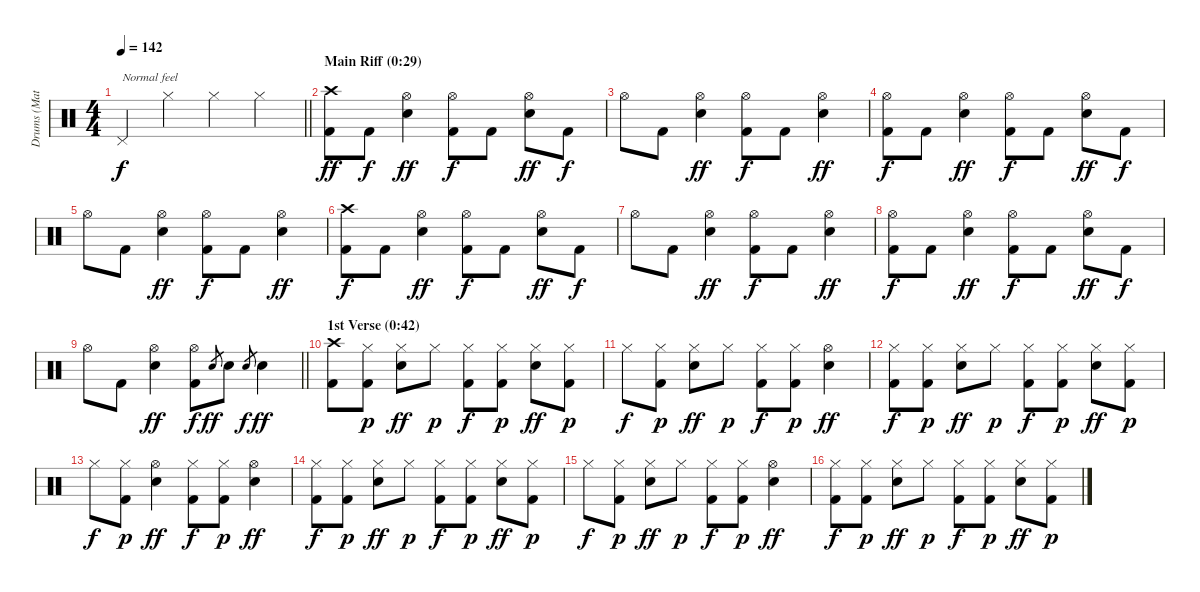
\track ("Drums (Matt Sorum)" "Drums (Mat") {instrument percussion}
\staff {score}
\articulation defaults
\ts (4 4)
\tempo 142
\clef neutral
\barLineRight lightlight
\ks c "Pedal Hi-Hat (hit)".4{txt "Normal feel" dy f} "Hi-Hat (closed)".4 "Hi-Hat (closed)".4 "Hi-Hat (closed)".4
|
\section ("" "Main Riff (0:29)")
("Crash high (hit)" "Kick (hit) 2").8{dy ff} "Kick (hit) 2".8{dy f} ("Hi-Hat (open)" "Snare (hit) 2").4{dy ff} ("Hi-Hat (open)" "Kick (hit) 2").8{dy f} "Kick (hit) 2".8 ("Hi-Hat (open)" "Snare (hit) 2").8{dy ff} "Kick (hit) 2".8{dy f} |
"Hi-Hat (open)".8 "Kick (hit) 2".8 ("Hi-Hat (open)" "Snare (hit) 2").4{dy ff} ("Hi-Hat (open)" "Kick (hit) 2").8{dy f} "Kick (hit) 2".8 ("Hi-Hat (open)" "Snare (hit) 2").4{dy ff} |
("Hi-Hat (open)" "Kick (hit) 2").8{dy f} "Kick (hit) 2".8 ("Hi-Hat (open)" "Snare (hit) 2").4{dy ff} ("Hi-Hat (open)" "Kick (hit) 2").8{dy f} "Kick (hit) 2".8 ("Hi-Hat (open)" "Snare (hit) 2").8{dy ff} "Kick (hit) 2".8{dy f} |
"Hi-Hat (open)".8 "Kick (hit) 2".8 ("Hi-Hat (open)" "Snare (hit) 2").4{dy ff} ("Hi-Hat (open)" "Kick (hit) 2").8{dy f} "Kick (hit) 2".8 ("Hi-Hat (open)" "Snare (hit) 2").4{dy ff} |
("Crash high (hit)" "Kick (hit) 2").8{dy f} "Kick (hit) 2".8 ("Hi-Hat (open)" "Snare (hit) 2").4{dy ff} ("Hi-Hat (open)" "Kick (hit) 2").8{dy f} "Kick (hit) 2".8 ("Hi-Hat (open)" "Snare (hit) 2").8{dy ff} "Kick (hit) 2".8{dy f} |
"Hi-Hat (open)".8 "Kick (hit) 2".8 ("Hi-Hat (open)" "Snare (hit) 2").4{dy ff} ("Hi-Hat (open)" "Kick (hit) 2").8{dy f} "Kick (hit) 2".8 ("Hi-Hat (open)" "Snare (hit) 2").4{dy ff} |
("Hi-Hat (open)" "Kick (hit) 2").8{dy f} "Kick (hit) 2".8 ("Hi-Hat (open)" "Snare (hit) 2").4{dy ff} ("Hi-Hat (open)" "Kick (hit) 2").8{dy f} "Kick (hit) 2".8 ("Hi-Hat (open)" "Snare (hit) 2").8{dy ff} "Kick (hit) 2".8{dy f} |
\barLineRight lightlight "Hi-Hat (open)".8 "Kick (hit) 2".8
("Hi-Hat (open)" "Snare (hit) 2").4{dy ff} ("Hi-Hat (open)" "Kick (hit) 2").8{dy f} "Snare (hit) 2".8{gr dy ff} "Snare (hit) 2".8 "Snare (hit) 2".8{gr dy f} "Snare (hit) 2".4{dy ff} |
\section ("" "1st Verse (0:42)")
("Crash high (hit)" "Kick (hit) 2").8 ("Hi-Hat (closed)" "Kick (hit) 2").8{dy p} ("Hi-Hat (closed)" "Snare (hit) 2").8{dy ff} "Hi-Hat (closed)".8{dy p} ("Hi-Hat (closed)" "Kick (hit) 2").8{dy f} ("Hi-Hat (closed)" "Kick (hit) 2").8{dy p} ("Hi-Hat (closed)" "Snare (hit) 2").8{dy ff} ("Hi-Hat (closed)" "Kick (hit) 2").8{dy p} |
"Hi-Hat (closed)".8{dy f} ("Hi-Hat (closed)" "Kick (hit) 2").8{dy p} ("Hi-Hat (closed)" "Snare (hit) 2").8{dy ff} "Hi-Hat (closed)".8{dy p} ("Hi-Hat (closed)" "Kick (hit) 2").8{dy f} ("Hi-Hat (closed)" "Kick (hit) 2").8{dy p} ("Hi-Hat (open)" "Snare (hit) 2").4{dy ff} |
("Hi-Hat (closed)" "Kick (hit) 2").8{dy f} ("Hi-Hat (closed)" "Kick (hit) 2").8{dy p} ("Hi-Hat (closed)" "Snare (hit) 2").8{dy ff} "Hi-Hat (closed)".8{dy p} ("Hi-Hat (closed)" "Kick (hit) 2").8{dy f} ("Hi-Hat (closed)" "Kick (hit) 2").8{dy p} ("Hi-Hat (closed)" "Snare (hit) 2").8{dy ff} ("Hi-Hat (closed)" "Kick (hit) 2").8{dy p} |
"Hi-Hat (closed)".8{dy f} ("Hi-Hat (closed)" "Kick (hit) 2").8{dy p} ("Hi-Hat (open)" "Snare (hit) 2").4{dy ff} ("Hi-Hat (closed)" "Kick (hit) 2").8{dy f} ("Hi-Hat (closed)" "Kick (hit) 2").8{dy p} ("Hi-Hat (open)" "Snare (hit) 2").4{dy ff} |
("Hi-Hat (closed)" "Kick (hit) 2").8{dy f} ("Hi-Hat (closed)" "Kick (hit) 2").8{dy p} ("Hi-Hat (closed)" "Snare (hit) 2").8{dy ff} "Hi-Hat (closed)".8{dy p} ("Hi-Hat (closed)" "Kick (hit) 2").8{dy f} ("Hi-Hat (closed)" "Kick (hit) 2").8{dy p} ("Hi-Hat (closed)" "Snare (hit) 2").8{dy ff} ("Hi-Hat (closed)" "Kick (hit) 2").8{dy p} |
"Hi-Hat (closed)".8{dy f} ("Hi-Hat (closed)" "Kick (hit) 2").8{dy p} ("Hi-Hat (closed)" "Snare (hit) 2").8{dy ff} "Hi-Hat (closed)".8{dy p} ("Hi-Hat (closed)" "Kick (hit) 2").8{dy f} ("Hi-Hat (closed)" "Kick (hit) 2").8{dy p} ("Hi-Hat (open)" "Snare (hit) 2").4{dy ff} |
("Hi-Hat (closed)" "Kick (hit) 2").8{dy f} ("Hi-Hat (closed)" "Kick (hit) 2").8{dy p} ("Hi-Hat (closed)" "Snare (hit) 2").8{dy ff} "Hi-Hat (closed)".8{dy p} ("Hi-Hat (closed)" "Kick (hit) 2").8{dy f} ("Hi-Hat (closed)" "Kick (hit) 2").8{dy p} ("Hi-Hat (closed)" "Snare (hit) 2").8{dy ff} ("Hi-Hat (closed)" "Kick (hit) 2").8{dy p}
